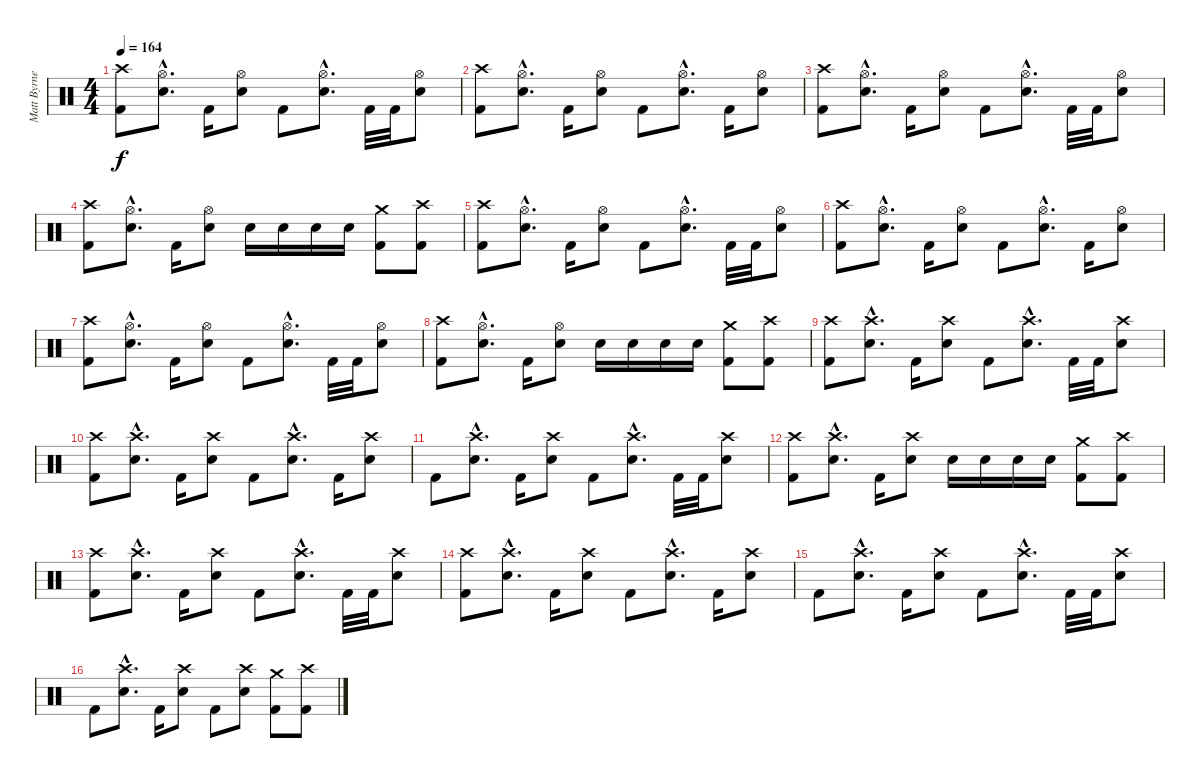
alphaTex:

\track ("Matt Byrne (Drums)" "Matt Byrne") {instrument percussion}
\staff {score}
\articulation defaults
\ts (4 4)
\tempo 164
\clef neutral
\ks c
("Crash high (hit)" "Kick (hit) 2").8{dy f} ("Hi-Hat (open)"{hac} "Snare (hit) 2"{hac}).8{d} "Kick (hit) 2".16 ("Hi-Hat (open)" "Snare (hit) 2").8 "Kick (hit) 2".8 ("Hi-Hat (open)"{hac} "Snare (hit) 2"{hac}).8{d} "Kick (hit) 2".32 "Kick (hit) 2".32 ("Hi-Hat (open)" "Snare (hit) 2").8 |
("Crash high (hit)" "Kick (hit) 2").8 ("Hi-Hat (open)"{hac} "Snare (hit) 2"{hac}).8{d} "Kick (hit) 2".16 ("Hi-Hat (open)" "Snare (hit) 2").8 "Kick (hit) 2".8 ("Hi-Hat (open)"{hac} "Snare (hit) 2"{hac}).8{d} "Kick (hit) 2".16 ("Hi-Hat (open)" "Snare (hit) 2").8 |
("Crash high (hit)" "Kick (hit) 2").8 ("Hi-Hat (open)"{hac} "Snare (hit) 2"{hac}).8{d} "Kick (hit) 2".16 ("Hi-Hat (open)" "Snare (hit) 2").8 "Kick (hit) 2".8 ("Hi-Hat (open)"{hac} "Snare (hit) 2"{hac}).8{d} "Kick (hit) 2".32 "Kick (hit) 2".32 ("Hi-Hat (open)" "Snare (hit) 2").8 |
("Crash high (hit)" "Kick (hit) 2").8 ("Hi-Hat (open)"{hac} "Snare (hit) 2"{hac}).8{d} "Kick (hit) 2".16 ("Hi-Hat (open)" "Snare (hit) 2").8 "Snare (hit) 2".16 "Snare (hit) 2".16 "Snare (hit) 2".16 "Snare (hit) 2".16 ("Crash medium (hit)" "Kick (hit) 2").8 ("Crash high (hit)" "Kick (hit) 2").8 |
("Crash high (hit)" "Kick (hit) 2").8 ("Hi-Hat (open)"{hac} "Snare (hit) 2"{hac}).8{d} "Kick (hit) 2".16 ("Hi-Hat (open)" "Snare (hit) 2").8 "Kick (hit) 2".8 ("Hi-Hat (open)"{hac} "Snare (hit) 2"{hac}).8{d} "Kick (hit) 2".32 "Kick (hit) 2".32 ("Hi-Hat (open)" "Snare (hit) 2").8 |
("Crash high (hit)" "Kick (hit) 2").8 ("Hi-Hat (open)"{hac} "Snare (hit) 2"{hac}).8{d} "Kick (hit) 2".16 ("Hi-Hat (open)" "Snare (hit) 2").8 "Kick (hit) 2".8 ("Hi-Hat (open)"{hac} "Snare (hit) 2"{hac}).8{d} "Kick (hit) 2".16 ("Hi-Hat (open)" "Snare (hit) 2").8 |
("Crash high (hit)" "Kick (hit) 2").8 ("Hi-Hat (open)"{hac} "Snare (hit) 2"{hac}).8{d} "Kick (hit) 2".16 ("Hi-Hat (open)" "Snare (hit) 2").8 "Kick (hit) 2".8 ("Hi-Hat (open)"{hac} "Snare (hit) 2"{hac}).8{d} "Kick (hit) 2".32 "Kick (hit) 2".32 ("Hi-Hat (open)" "Snare (hit) 2").8 |
("Crash high (hit)" "Kick (hit) 2").8 ("Hi-Hat (open)"{hac} "Snare (hit) 2"{hac}).8{d} "Kick (hit) 2".16 ("Hi-Hat (open)" "Snare (hit) 2").8 "Snare (hit) 2".16 "Snare (hit) 2".16 "Snare (hit) 2".16 "Snare (hit) 2".16 ("Crash medium (hit)" "Kick (hit) 2").8 ("Crash high (hit)" "Kick (hit) 2").8 |
("Crash high (hit)" "Kick (hit) 2").8 ("Crash high (hit)"{hac} "Snare (hit) 2"{hac}).8{d} "Kick (hit) 2".16 ("Crash high (hit)" "Snare (hit) 2").8 "Kick (hit) 2".8 ("Crash high (hit)"{hac} "Snare (hit) 2"{hac}).8{d} "Kick (hit) 2".32 "Kick (hit) 2".32 ("Crash high (hit)" "Snare (hit) 2").8 |
("Crash high (hit)" "Kick (hit) 2").8 ("Crash high (hit)"{hac} "Snare (hit) 2"{hac}).8{d} "Kick (hit) 2".16 ("Crash high (hit)" "Snare (hit) 2").8 "Kick (hit) 2".8 ("Crash high (hit)"{hac} "Snare (hit) 2"{hac}).8{d} "Kick (hit) 2".16 ("Crash high (hit)" "Snare (hit) 2").8 |
"Kick (hit) 2".8 ("Crash high (hit)"{hac} "Snare (hit) 2"{hac}).8{d} "Kick (hit) 2".16 ("Crash high (hit)" "Snare (hit) 2").8 "Kick (hit) 2".8 ("Crash high (hit)"{hac} "Snare (hit) 2"{hac}).8{d} "Kick (hit) 2".32 "Kick (hit) 2".32 ("Crash high (hit)" "Snare (hit) 2").8 |
("Crash high (hit)" "Kick (hit) 2").8 ("Crash high (hit)"{hac} "Snare (hit) 2"{hac}).8{d} "Kick (hit) 2".16 ("Crash high (hit)" "Snare (hit) 2").8 "Snare (hit) 2".16 "Snare (hit) 2".16 "Snare (hit) 2".16 "Snare (hit) 2".16 ("Crash medium (hit)" "Kick (hit) 2").8 ("Crash high (hit)" "Kick (hit) 2").8 |
("Crash high (hit)" "Kick (hit) 2").8 ("Crash high (hit)"{hac} "Snare (hit) 2"{hac}).8{d} "Kick (hit) 2".16 ("Crash high (hit)" "Snare (hit) 2").8 "Kick (hit) 2".8 ("Crash high (hit)"{hac} "Snare (hit) 2"{hac}).8{d} "Kick (hit) 2".32 "Kick (hit) 2".32 ("Crash high (hit)" "Snare (hit) 2").8 |
("Crash high (hit)" "Kick (hit) 2").8 ("Crash high (hit)"{hac} "Snare (hit) 2"{hac}).8{d} "Kick (hit) 2".16 ("Crash high (hit)" "Snare (hit) 2").8 "Kick (hit) 2".8 ("Crash high (hit)"{hac} "Snare (hit) 2"{hac}).8{d} "Kick (hit) 2".16 ("Crash high (hit)" "Snare (hit) 2").8 |
"Kick (hit) 2".8 ("Crash high (hit)"{hac} "Snare (hit) 2"{hac}).8{d} "Kick (hit) 2".16 ("Crash high (hit)" "Snare (hit) 2").8 "Kick (hit) 2".8 ("Crash high (hit)"{hac} "Snare (hit) 2"{hac}).8{d} "Kick (hit) 2".32 "Kick (hit) 2".32 ("Crash high (hit)" "Snare (hit) 2").8 |
"Kick (hit) 2".8 ("Crash high (hit)"{hac} "Snare (hit) 2"{hac}).8{d} "Kick (hit) 2".16 ("Crash high (hit)" "Snare (hit) 2").8 "Kick (hit) 2".8 ("Crash high (hit)" "Snare (hit) 2").8 ("Crash medium (hit)" "Kick (hit) 2").8 ("Crash high (hit)" "Kick (hit) 2").8
